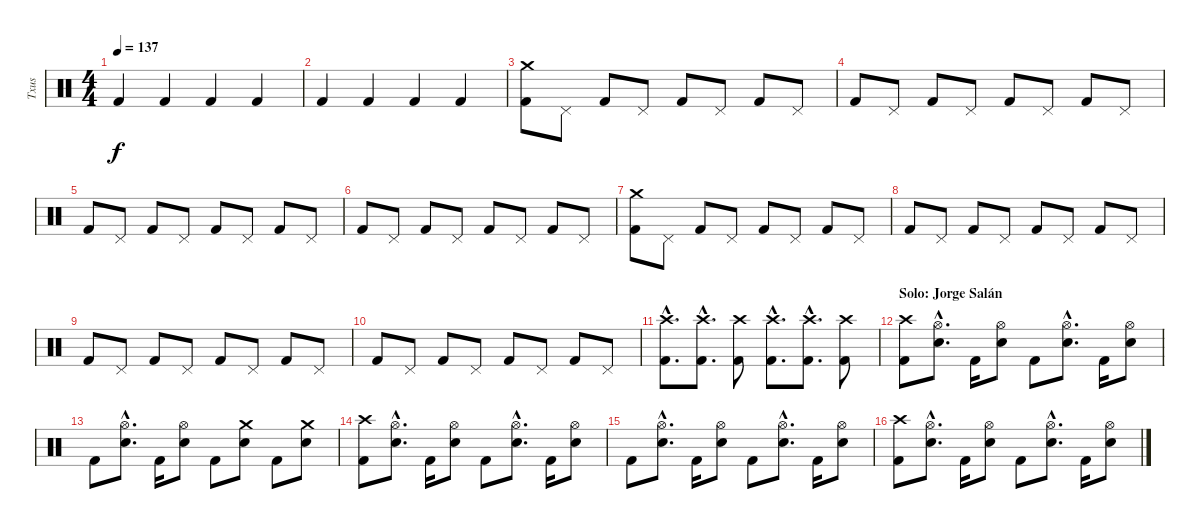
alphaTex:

\track ("Txus" "Txus") {instrument percussion}
\staff {score}
\articulation defaults
\ts (4 4)
\tempo 137
\clef neutral
\ks c "Kick (hit) 2".4{dy f} "Kick (hit) 2".4 "Kick (hit) 2".4 "Kick (hit) 2".4
|
"Kick (hit) 2".4 "Kick (hit) 2".4 "Kick (hit) 2".4 "Kick (hit) 2".4 |
("Kick (hit) 2" "Crash medium (hit)").8 "Pedal Hi-Hat (hit)".8 "Kick (hit) 2".8 "Pedal Hi-Hat (hit)".8 "Kick (hit) 2".8 "Pedal Hi-Hat (hit)".8 "Kick (hit) 2".8 "Pedal Hi-Hat (hit)".8 |
"Kick (hit) 2".8 "Pedal Hi-Hat (hit)".8 "Kick (hit) 2".8 "Pedal Hi-Hat (hit)".8 "Kick (hit) 2".8 "Pedal Hi-Hat (hit)".8 "Kick (hit) 2".8 "Pedal Hi-Hat (hit)".8 |
"Kick (hit) 2".8 "Pedal Hi-Hat (hit)".8 "Kick (hit) 2".8 "Pedal Hi-Hat (hit)".8 "Kick (hit) 2".8 "Pedal Hi-Hat (hit)".8 "Kick (hit) 2".8 "Pedal Hi-Hat (hit)".8 |
"Kick (hit) 2".8 "Pedal Hi-Hat (hit)".8 "Kick (hit) 2".8 "Pedal Hi-Hat (hit)".8 "Kick (hit) 2".8 "Pedal Hi-Hat (hit)".8 "Kick (hit) 2".8 "Pedal Hi-Hat (hit)".8 |
("Kick (hit) 2" "Crash medium (hit)").8 "Pedal Hi-Hat (hit)".8 "Kick (hit) 2".8 "Pedal Hi-Hat (hit)".8 "Kick (hit) 2".8 "Pedal Hi-Hat (hit)".8 "Kick (hit) 2".8 "Pedal Hi-Hat (hit)".8 |
"Kick (hit) 2".8 "Pedal Hi-Hat (hit)".8 "Kick (hit) 2".8 "Pedal Hi-Hat (hit)".8 "Kick (hit) 2".8 "Pedal Hi-Hat (hit)".8 "Kick (hit) 2".8 "Pedal Hi-Hat (hit)".8 |
"Kick (hit) 2".8 "Pedal Hi-Hat (hit)".8 "Kick (hit) 2".8 "Pedal Hi-Hat (hit)".8 "Kick (hit) 2".8 "Pedal Hi-Hat (hit)".8 "Kick (hit) 2".8 "Pedal Hi-Hat (hit)".8 |
"Kick (hit) 2".8 "Pedal Hi-Hat (hit)".8 "Kick (hit) 2".8 "Pedal Hi-Hat (hit)".8 "Kick (hit) 2".8 "Pedal Hi-Hat (hit)".8 "Kick (hit) 2".8 "Pedal Hi-Hat (hit)".8 |
("Kick (hit) 2"{hac} "Crash high (hit)"{hac}).8{d} ("Kick (hit) 2"{hac} "Crash high (hit)"{hac}).8{d} ("Kick (hit) 2" "Crash high (hit)").8 ("Kick (hit) 2"{hac} "Crash high (hit)"{hac}).8{d} ("Kick (hit) 2"{hac} "Crash high (hit)"{hac}).8{d} ("Kick (hit) 2" "Crash high (hit)").8 |
\section ("" "Solo: Jorge Salán")
("Kick (hit) 2" "Crash high (hit)").8 ("Electric Snare (hit)"{hac} "Hi-Hat (open)"{hac}).8{d} "Kick (hit) 2".16 ("Electric Snare (hit)" "Hi-Hat (open)").8 "Kick (hit) 2".8 ("Electric Snare (hit)"{hac} "Hi-Hat (open)"{hac}).8{d} "Kick (hit) 2".16 ("Electric Snare (hit)" "Hi-Hat (open)").8 |
"Kick (hit) 2".8 ("Electric Snare (hit)"{hac} "Hi-Hat (open)"{hac}).8{d} "Kick (hit) 2".16 ("Electric Snare (hit)" "Hi-Hat (open)").8 "Kick (hit) 2".8 ("Electric Snare (hit)" "Crash medium (hit)").8 "Kick (hit) 2".8 ("Electric Snare (hit)" "Crash medium (hit)").8 |
("Kick (hit) 2" "Crash high (hit)").8 ("Electric Snare (hit)"{hac} "Hi-Hat (open)"{hac}).8{d} "Kick (hit) 2".16 ("Electric Snare (hit)" "Hi-Hat (open)").8 "Kick (hit) 2".8 ("Electric Snare (hit)"{hac} "Hi-Hat (open)"{hac}).8{d} "Kick (hit) 2".16 ("Electric Snare (hit)" "Hi-Hat (open)").8 |
"Kick (hit) 2".8 ("Electric Snare (hit)"{hac} "Hi-Hat (open)"{hac}).8{d} "Kick (hit) 2".16 ("Electric Snare (hit)" "Hi-Hat (open)").8 "Kick (hit) 2".8 ("Electric Snare (hit)"{hac} "Hi-Hat (open)"{hac}).8{d} "Kick (hit) 2".16 ("Electric Snare (hit)" "Hi-Hat (open)").8 |
("Kick (hit) 2" "Crash high (hit)").8 ("Electric Snare (hit)"{hac} "Hi-Hat (open)"{hac}).8{d} "Kick (hit) 2".16 ("Electric Snare (hit)" "Hi-Hat (open)").8 "Kick (hit) 2".8 ("Electric Snare (hit)"{hac} "Hi-Hat (open)"{hac}).8{d} "Kick (hit) 2".16 ("Electric Snare (hit)" "Hi-Hat (open)").8
